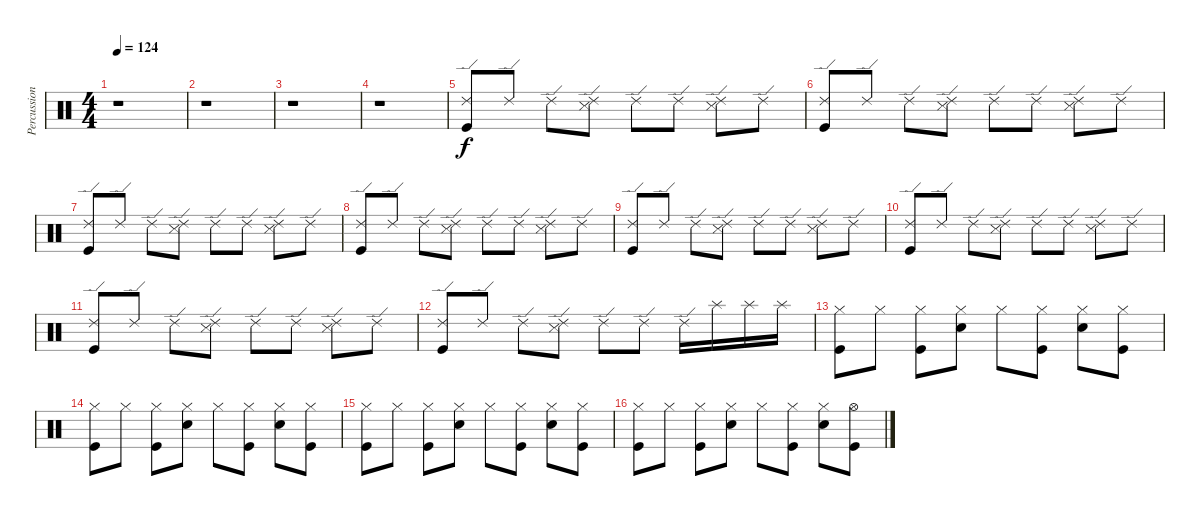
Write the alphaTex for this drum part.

\track ("Percussion" "Percussion") {instrument percussion}
\staff {score}
\articulation defaults
\ts (4 4)
\tempo 124
\clef neutral
\ks c
r.1{dy f} |
r.1 |
r.1 |
r.1 |
("Ride (edge) 2" "Kick (hit)").8 "Ride (edge) 2".8 "Ride (edge) 2".8 ("Ride (edge) 2" "Snare (side stick) 3").8 "Ride (edge) 2".8 "Ride (edge) 2".8 ("Ride (edge) 2" "Snare (side stick) 3").8 "Ride (edge) 2".8 |
("Ride (edge) 2" "Kick (hit)").8 "Ride (edge) 2".8 "Ride (edge) 2".8 ("Ride (edge) 2" "Snare (side stick) 3").8 "Ride (edge) 2".8 "Ride (edge) 2".8 ("Ride (edge) 2" "Snare (side stick) 3").8 "Ride (edge) 2".8 |
("Ride (edge) 2" "Kick (hit)").8 "Ride (edge) 2".8 "Ride (edge) 2".8 ("Ride (edge) 2" "Snare (side stick) 3").8 "Ride (edge) 2".8 "Ride (edge) 2".8 ("Ride (edge) 2" "Snare (side stick) 3").8 "Ride (edge) 2".8 |
("Ride (edge) 2" "Kick (hit)").8 "Ride (edge) 2".8 "Ride (edge) 2".8 ("Ride (edge) 2" "Snare (side stick) 3").8 "Ride (edge) 2".8 "Ride (edge) 2".8 ("Ride (edge) 2" "Snare (side stick) 3").8 "Ride (edge) 2".8 |
("Ride (edge) 2" "Kick (hit)").8 "Ride (edge) 2".8 "Ride (edge) 2".8 ("Ride (edge) 2" "Snare (side stick) 3").8 "Ride (edge) 2".8 "Ride (edge) 2".8 ("Ride (edge) 2" "Snare (side stick) 3").8 "Ride (edge) 2".8 |
("Ride (edge) 2" "Kick (hit)").8 "Ride (edge) 2".8 "Ride (edge) 2".8 ("Ride (edge) 2" "Snare (side stick) 3").8 "Ride (edge) 2".8 "Ride (edge) 2".8 ("Ride (edge) 2" "Snare (side stick) 3").8 "Ride (edge) 2".8 |
("Ride (edge) 2" "Kick (hit)").8 "Ride (edge) 2".8 "Ride (edge) 2".8 ("Ride (edge) 2" "Snare (side stick) 3").8 "Ride (edge) 2".8 "Ride (edge) 2".8 ("Ride (edge) 2" "Snare (side stick) 3").8 "Ride (edge) 2".8 |
("Ride (edge) 2" "Kick (hit)").8 "Ride (edge) 2".8 "Ride (edge) 2".8 ("Ride (edge) 2" "Snare (side stick) 3").8 "Ride (edge) 2".8 "Ride (edge) 2".8 "Ride (edge) 2".16 "Splash (hit)".16 "Splash (hit)".16 "Splash (hit)".16 |
("Hi-Hat (closed)" "Kick (hit)").8 "Hi-Hat (closed)".8 ("Hi-Hat (closed)" "Kick (hit)").8 ("Hi-Hat (closed)" "Snare (hit) 2").8 "Hi-Hat (closed)".8 ("Hi-Hat (closed)" "Kick (hit)").8 ("Hi-Hat (closed)" "Snare (hit) 2").8 ("Hi-Hat (closed)" "Kick (hit)").8 |
("Hi-Hat (closed)" "Kick (hit)").8 "Hi-Hat (closed)".8 ("Hi-Hat (closed)" "Kick (hit)").8 ("Hi-Hat (closed)" "Snare (hit) 2").8 "Hi-Hat (closed)".8 ("Hi-Hat (closed)" "Kick (hit)").8 ("Hi-Hat (closed)" "Snare (hit) 2").8 ("Hi-Hat (closed)" "Kick (hit)").8 |
("Hi-Hat (closed)" "Kick (hit)").8 "Hi-Hat (closed)".8 ("Hi-Hat (closed)" "Kick (hit)").8 ("Hi-Hat (closed)" "Snare (hit) 2").8 "Hi-Hat (closed)".8 ("Hi-Hat (closed)" "Kick (hit)").8 ("Hi-Hat (closed)" "Snare (hit) 2").8 ("Hi-Hat (closed)" "Kick (hit)").8 |
("Hi-Hat (closed)" "Kick (hit)").8 "Hi-Hat (closed)".8 ("Hi-Hat (closed)" "Kick (hit)").8 ("Hi-Hat (closed)" "Snare (hit) 2").8 "Hi-Hat (closed)".8 ("Hi-Hat (closed)" "Kick (hit)").8 ("Hi-Hat (closed)" "Snare (hit) 2").8 ("Hi-Hat (open)" "Kick (hit)").8
